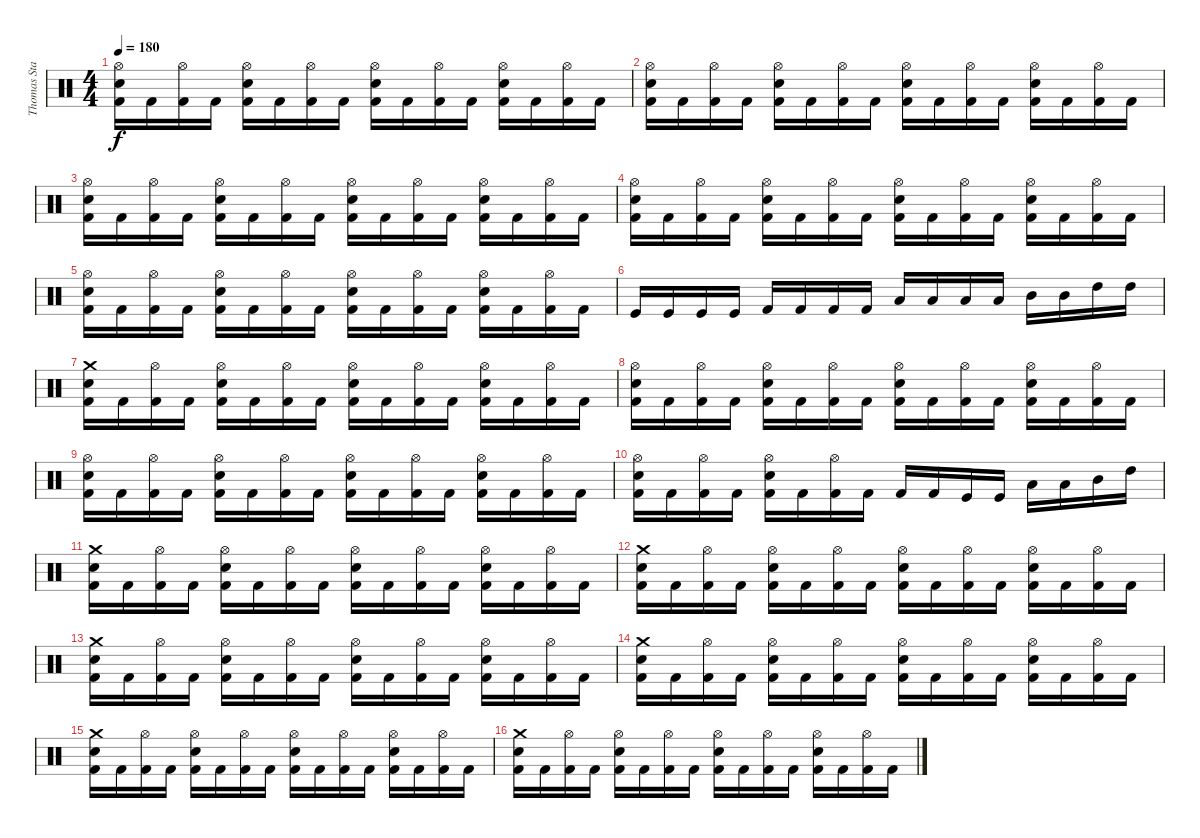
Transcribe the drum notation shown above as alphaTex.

\track ("Thomas Stauch" "Thomas Sta") {instrument percussion}
\staff {score}
\articulation defaults
\ts (4 4)
\tempo 180
\clef neutral
\ks c
("Kick (hit) 2" "Snare (hit) 2" "Hi-Hat (open)").16{dy f} "Kick (hit) 2".16 ("Kick (hit) 2" "Hi-Hat (open)").16 "Kick (hit) 2".16 ("Kick (hit) 2" "Snare (hit) 2" "Hi-Hat (open)").16 "Kick (hit) 2".16 ("Kick (hit) 2" "Hi-Hat (open)").16 "Kick (hit) 2".16 ("Kick (hit) 2" "Snare (hit) 2" "Hi-Hat (open)").16 "Kick (hit) 2".16 ("Kick (hit) 2" "Hi-Hat (open)").16 "Kick (hit) 2".16 ("Kick (hit) 2" "Snare (hit) 2" "Hi-Hat (open)").16 "Kick (hit) 2".16 ("Kick (hit) 2" "Hi-Hat (open)").16 "Kick (hit) 2".16 |
("Kick (hit) 2" "Snare (hit) 2" "Hi-Hat (open)").16 "Kick (hit) 2".16 ("Kick (hit) 2" "Hi-Hat (open)").16 "Kick (hit) 2".16 ("Kick (hit) 2" "Snare (hit) 2" "Hi-Hat (open)").16 "Kick (hit) 2".16 ("Kick (hit) 2" "Hi-Hat (open)").16 "Kick (hit) 2".16 ("Kick (hit) 2" "Snare (hit) 2" "Hi-Hat (open)").16 "Kick (hit) 2".16 ("Kick (hit) 2" "Hi-Hat (open)").16 "Kick (hit) 2".16 ("Kick (hit) 2" "Snare (hit) 2" "Hi-Hat (open)").16 "Kick (hit) 2".16 ("Kick (hit) 2" "Hi-Hat (open)").16 "Kick (hit) 2".16 |
("Kick (hit) 2" "Snare (hit) 2" "Hi-Hat (open)").16 "Kick (hit) 2".16 ("Kick (hit) 2" "Hi-Hat (open)").16 "Kick (hit) 2".16 ("Kick (hit) 2" "Snare (hit) 2" "Hi-Hat (open)").16 "Kick (hit) 2".16 ("Kick (hit) 2" "Hi-Hat (open)").16 "Kick (hit) 2".16 ("Kick (hit) 2" "Snare (hit) 2" "Hi-Hat (open)").16 "Kick (hit) 2".16 ("Kick (hit) 2" "Hi-Hat (open)").16 "Kick (hit) 2".16 ("Kick (hit) 2" "Snare (hit) 2" "Hi-Hat (open)").16 "Kick (hit) 2".16 ("Kick (hit) 2" "Hi-Hat (open)").16 "Kick (hit) 2".16 |
("Kick (hit) 2" "Snare (hit) 2" "Hi-Hat (open)").16 "Kick (hit) 2".16 ("Kick (hit) 2" "Hi-Hat (open)").16 "Kick (hit) 2".16 ("Kick (hit) 2" "Snare (hit) 2" "Hi-Hat (open)").16 "Kick (hit) 2".16 ("Kick (hit) 2" "Hi-Hat (open)").16 "Kick (hit) 2".16 ("Kick (hit) 2" "Snare (hit) 2" "Hi-Hat (open)").16 "Kick (hit) 2".16 ("Kick (hit) 2" "Hi-Hat (open)").16 "Kick (hit) 2".16 ("Kick (hit) 2" "Snare (hit) 2" "Hi-Hat (open)").16 "Kick (hit) 2".16 ("Kick (hit) 2" "Hi-Hat (open)").16 "Kick (hit) 2".16 |
("Kick (hit) 2" "Snare (hit) 2" "Hi-Hat (open)").16 "Kick (hit) 2".16 ("Kick (hit) 2" "Hi-Hat (open)").16 "Kick (hit) 2".16 ("Kick (hit) 2" "Snare (hit) 2" "Hi-Hat (open)").16 "Kick (hit) 2".16 ("Kick (hit) 2" "Hi-Hat (open)").16 "Kick (hit) 2".16 ("Kick (hit) 2" "Snare (hit) 2" "Hi-Hat (open)").16 "Kick (hit) 2".16 ("Kick (hit) 2" "Hi-Hat (open)").16 "Kick (hit) 2".16 ("Kick (hit) 2" "Snare (hit) 2" "Hi-Hat (open)").16 "Kick (hit) 2".16 ("Kick (hit) 2" "Hi-Hat (open)").16 "Kick (hit) 2".16 |
"Kick (hit)".16 "Kick (hit)".16 "Kick (hit)".16 "Kick (hit)".16 "Kick (hit) 2".16 "Kick (hit) 2".16 "Kick (hit) 2".16 "Kick (hit) 2".16 "Low Tom (hit)".16 "Low Tom (hit)".16 "Low Tom (hit)".16 "Low Tom (hit)".16 "Mid Tom (hit)".16 "Mid Tom (hit)".16 "High Tom (hit)".16 "High Tom (hit)".16 |
("Kick (hit) 2" "Snare (hit) 2" "Crash medium (hit)").16 "Kick (hit) 2".16 ("Kick (hit) 2" "Hi-Hat (open)").16 "Kick (hit) 2".16 ("Kick (hit) 2" "Snare (hit) 2" "Hi-Hat (open)").16 "Kick (hit) 2".16 ("Kick (hit) 2" "Hi-Hat (open)").16 "Kick (hit) 2".16 ("Kick (hit) 2" "Snare (hit) 2" "Hi-Hat (open)").16 "Kick (hit) 2".16 ("Kick (hit) 2" "Hi-Hat (open)").16 "Kick (hit) 2".16 ("Kick (hit) 2" "Snare (hit) 2" "Hi-Hat (open)").16 "Kick (hit) 2".16 ("Kick (hit) 2" "Hi-Hat (open)").16 "Kick (hit) 2".16 |
("Kick (hit) 2" "Snare (hit) 2" "Hi-Hat (open)").16 "Kick (hit) 2".16 ("Kick (hit) 2" "Hi-Hat (open)").16 "Kick (hit) 2".16 ("Kick (hit) 2" "Snare (hit) 2" "Hi-Hat (open)").16 "Kick (hit) 2".16 ("Kick (hit) 2" "Hi-Hat (open)").16 "Kick (hit) 2".16 ("Kick (hit) 2" "Snare (hit) 2" "Hi-Hat (open)").16 "Kick (hit) 2".16 ("Kick (hit) 2" "Hi-Hat (open)").16 "Kick (hit) 2".16 ("Kick (hit) 2" "Snare (hit) 2" "Hi-Hat (open)").16 "Kick (hit) 2".16 ("Kick (hit) 2" "Hi-Hat (open)").16 "Kick (hit) 2".16 |
("Kick (hit) 2" "Snare (hit) 2" "Hi-Hat (open)").16 "Kick (hit) 2".16 ("Kick (hit) 2" "Hi-Hat (open)").16 "Kick (hit) 2".16 ("Kick (hit) 2" "Snare (hit) 2" "Hi-Hat (open)").16 "Kick (hit) 2".16 ("Kick (hit) 2" "Hi-Hat (open)").16 "Kick (hit) 2".16 ("Kick (hit) 2" "Snare (hit) 2" "Hi-Hat (open)").16 "Kick (hit) 2".16 ("Kick (hit) 2" "Hi-Hat (open)").16 "Kick (hit) 2".16 ("Kick (hit) 2" "Snare (hit) 2" "Hi-Hat (open)").16 "Kick (hit) 2".16 ("Kick (hit) 2" "Hi-Hat (open)").16 "Kick (hit) 2".16 |
("Kick (hit) 2" "Snare (hit) 2" "Hi-Hat (open)").16 "Kick (hit) 2".16 ("Kick (hit) 2" "Hi-Hat (open)").16 "Kick (hit) 2".16 ("Kick (hit) 2" "Snare (hit) 2" "Hi-Hat (open)").16 "Kick (hit) 2".16 ("Kick (hit) 2" "Hi-Hat (open)").16 "Kick (hit) 2".16 "Kick (hit) 2".16 "Kick (hit) 2".16 "Kick (hit)".16 "Kick (hit)".16 "Low Floor Tom (hit)".16 "Low Tom (hit)".16 "Mid Tom (hit)".16 "High Tom (hit)".16 |
("Kick (hit) 2" "Snare (hit) 2" "Crash medium (hit)").16 "Kick (hit) 2".16 ("Kick (hit) 2" "Hi-Hat (open)").16 "Kick (hit) 2".16 ("Kick (hit) 2" "Snare (hit) 2" "Hi-Hat (open)").16 "Kick (hit) 2".16 ("Kick (hit) 2" "Hi-Hat (open)").16 "Kick (hit) 2".16 ("Kick (hit) 2" "Snare (hit) 2" "Hi-Hat (open)").16 "Kick (hit) 2".16 ("Kick (hit) 2" "Hi-Hat (open)").16 "Kick (hit) 2".16 ("Kick (hit) 2" "Snare (hit) 2" "Hi-Hat (open)").16 "Kick (hit) 2".16 ("Kick (hit) 2" "Hi-Hat (open)").16 "Kick (hit) 2".16 |
("Kick (hit) 2" "Snare (hit) 2" "Crash medium (hit)").16 "Kick (hit) 2".16 ("Kick (hit) 2" "Hi-Hat (open)").16 "Kick (hit) 2".16 ("Kick (hit) 2" "Snare (hit) 2" "Hi-Hat (open)").16 "Kick (hit) 2".16 ("Kick (hit) 2" "Hi-Hat (open)").16 "Kick (hit) 2".16 ("Kick (hit) 2" "Snare (hit) 2" "Hi-Hat (open)").16 "Kick (hit) 2".16 ("Kick (hit) 2" "Hi-Hat (open)").16 "Kick (hit) 2".16 ("Kick (hit) 2" "Snare (hit) 2" "Hi-Hat (open)").16 "Kick (hit) 2".16 ("Kick (hit) 2" "Hi-Hat (open)").16 "Kick (hit) 2".16 |
("Kick (hit) 2" "Snare (hit) 2" "Crash medium (hit)").16 "Kick (hit) 2".16 ("Kick (hit) 2" "Hi-Hat (open)").16 "Kick (hit) 2".16 ("Kick (hit) 2" "Snare (hit) 2" "Hi-Hat (open)").16 "Kick (hit) 2".16 ("Kick (hit) 2" "Hi-Hat (open)").16 "Kick (hit) 2".16 ("Kick (hit) 2" "Snare (hit) 2" "Hi-Hat (open)").16 "Kick (hit) 2".16 ("Kick (hit) 2" "Hi-Hat (open)").16 "Kick (hit) 2".16 ("Kick (hit) 2" "Snare (hit) 2" "Hi-Hat (open)").16 "Kick (hit) 2".16 ("Kick (hit) 2" "Hi-Hat (open)").16 "Kick (hit) 2".16 |
("Kick (hit) 2" "Snare (hit) 2" "Crash medium (hit)").16 "Kick (hit) 2".16 ("Kick (hit) 2" "Hi-Hat (open)").16 "Kick (hit) 2".16 ("Kick (hit) 2" "Snare (hit) 2" "Hi-Hat (open)").16 "Kick (hit) 2".16 ("Kick (hit) 2" "Hi-Hat (open)").16 "Kick (hit) 2".16 ("Kick (hit) 2" "Snare (hit) 2" "Hi-Hat (open)").16 "Kick (hit) 2".16 ("Kick (hit) 2" "Hi-Hat (open)").16 "Kick (hit) 2".16 ("Kick (hit) 2" "Snare (hit) 2" "Hi-Hat (open)").16 "Kick (hit) 2".16 ("Kick (hit) 2" "Hi-Hat (open)").16 "Kick (hit) 2".16 |
("Kick (hit) 2" "Snare (hit) 2" "Crash medium (hit)").16 "Kick (hit) 2".16 ("Kick (hit) 2" "Hi-Hat (open)").16 "Kick (hit) 2".16 ("Kick (hit) 2" "Snare (hit) 2" "Hi-Hat (open)").16 "Kick (hit) 2".16 ("Kick (hit) 2" "Hi-Hat (open)").16 "Kick (hit) 2".16 ("Kick (hit) 2" "Snare (hit) 2" "Hi-Hat (open)").16 "Kick (hit) 2".16 ("Kick (hit) 2" "Hi-Hat (open)").16 "Kick (hit) 2".16 ("Kick (hit) 2" "Snare (hit) 2" "Hi-Hat (open)").16 "Kick (hit) 2".16 ("Kick (hit) 2" "Hi-Hat (open)").16 "Kick (hit) 2".16 |
("Kick (hit) 2" "Snare (hit) 2" "Crash medium (hit)").16 "Kick (hit) 2".16 ("Kick (hit) 2" "Hi-Hat (open)").16 "Kick (hit) 2".16 ("Kick (hit) 2" "Snare (hit) 2" "Hi-Hat (open)").16 "Kick (hit) 2".16 ("Kick (hit) 2" "Hi-Hat (open)").16 "Kick (hit) 2".16 ("Kick (hit) 2" "Snare (hit) 2" "Hi-Hat (open)").16 "Kick (hit) 2".16 ("Kick (hit) 2" "Hi-Hat (open)").16 "Kick (hit) 2".16 ("Kick (hit) 2" "Snare (hit) 2" "Hi-Hat (open)").16 "Kick (hit) 2".16 ("Kick (hit) 2" "Hi-Hat (open)").16 "Kick (hit) 2".16
